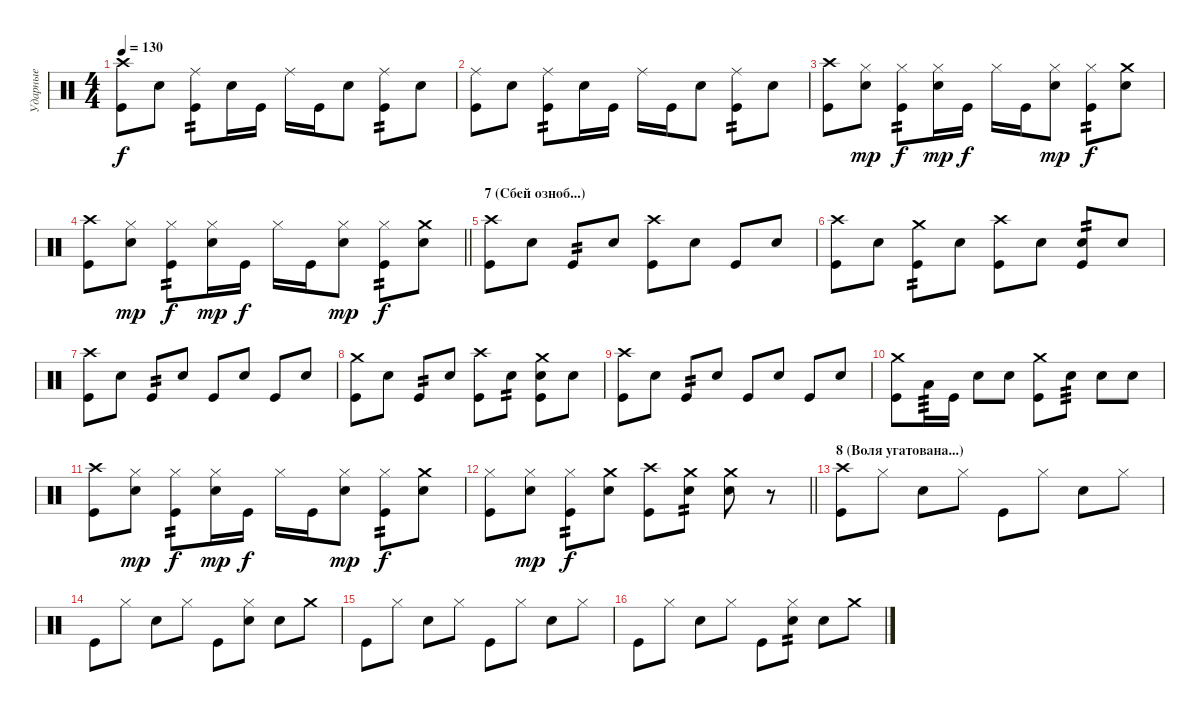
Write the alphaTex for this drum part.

\track ("Ударные" "Ударные") {instrument percussion}
\staff {score}
\articulation defaults
\ts (4 4)
\tempo 130
\clef neutral
\ks c
("Crash high (hit)" "Kick (hit)").8{dy f} "Snare (hit) 2".8 ("Ride (middle)" "Kick (hit)").8{tp 2} "Snare (hit) 2".16 "Kick (hit)".16 "Ride (middle)".16 "Kick (hit)".16 "Snare (hit) 2".8 ("Ride (middle)" "Kick (hit)").8{tp 2} "Snare (hit) 2".8 |
("Ride (middle)" "Kick (hit)").8 "Snare (hit) 2".8 ("Ride (middle)" "Kick (hit)").8{tp 2} "Snare (hit) 2".16 "Kick (hit)".16 "Ride (middle)".16 "Kick (hit)".16 "Snare (hit) 2".8 ("Ride (middle)" "Kick (hit)").8{tp 2} "Snare (hit) 2".8 |
("Crash high (hit)" "Kick (hit)").8 ("Hi-Hat (closed)" "Snare (hit) 2").8{dy mp} ("Hi-Hat (closed)" "Kick (hit)").8{tp 2 dy f} ("Hi-Hat (closed)" "Snare (hit) 2").16{dy mp} "Kick (hit)".16{dy f} "Hi-Hat (closed)".16 "Kick (hit)".16 ("Hi-Hat (closed)" "Snare (hit) 2").8{dy mp} ("Hi-Hat (closed)" "Kick (hit)").8{tp 2 dy f} ("Crash medium (hit)" "Snare (hit) 2").8 |
\barLineRight lightlight
("Crash high (hit)" "Kick (hit)").8 ("Hi-Hat (closed)" "Snare (hit) 2").8{dy mp} ("Hi-Hat (closed)" "Kick (hit)").8{tp 2 dy f} ("Hi-Hat (closed)" "Snare (hit) 2").16{dy mp} "Kick (hit)".16{dy f} "Hi-Hat (closed)".16 "Kick (hit)".16 ("Hi-Hat (closed)" "Snare (hit) 2").8{dy mp} ("Hi-Hat (closed)" "Kick (hit)").8{tp 2 dy f} ("Crash medium (hit)" "Snare (hit) 2").8 |
\section ("" "7 (Сбей озноб...)")
("Crash high (hit)" "Kick (hit)").8 "Snare (hit) 2".8 "Kick (hit)".8{tp 2} "Snare (hit) 2".8 ("Crash high (hit)" "Kick (hit)").8 "Snare (hit) 2".8 "Kick (hit)".8 "Snare (hit) 2".8 |
("Crash high (hit)" "Kick (hit)").8 "Snare (hit) 2".8 ("Crash medium (hit)" "Kick (hit)").8{tp 2} "Snare (hit) 2".8 ("Crash high (hit)" "Kick (hit)").8 "Snare (hit) 2".8 ("Snare (hit) 2" "Kick (hit)").8{tp 2} "Snare (hit) 2".8 |
("Crash high (hit)" "Kick (hit)").8 "Snare (hit) 2".8 "Kick (hit)".8{tp 2} "Snare (hit) 2".8 "Kick (hit)".8 "Snare (hit) 2".8 "Kick (hit)".8 "Snare (hit) 2".8 |
("Crash medium (hit)" "Kick (hit)").8 "Snare (hit) 2".8 "Kick (hit)".8{tp 2} "Snare (hit) 2".8 ("Crash high (hit)" "Kick (hit)").8 "Snare (hit) 2".8{tp 2} ("Crash medium (hit)" "Snare (hit) 2" "Kick (hit)").8 "Snare (hit) 2".8 |
("Crash high (hit)" "Kick (hit)").8 "Snare (hit) 2".8 "Kick (hit)".8{tp 2} "Snare (hit) 2".8 "Kick (hit)".8 "Snare (hit) 2".8 "Kick (hit)".8 "Snare (hit) 2".8 |
("Crash medium (hit)" "Kick (hit)").8 "Low Tom (hit)".16{tp 3} "Kick (hit)".16 "Snare (hit) 2".8 "Snare (hit) 2".8 ("Crash medium (hit)" "Kick (hit)").8 "Snare (hit) 2".8{tp 3} "Snare (hit) 2".8 "Snare (hit) 2".8 |
("Crash high (hit)" "Kick (hit)").8 ("Hi-Hat (closed)" "Snare (hit) 2").8{dy mp} ("Hi-Hat (closed)" "Kick (hit)").8{tp 2 dy f} ("Hi-Hat (closed)" "Snare (hit) 2").16{dy mp} "Kick (hit)".16{dy f} "Hi-Hat (closed)".16 "Kick (hit)".16 ("Hi-Hat (closed)" "Snare (hit) 2").8{dy mp} ("Hi-Hat (closed)" "Kick (hit)").8{tp 2 dy f} ("Crash medium (hit)" "Snare (hit) 2").8 |
\barLineRight lightlight
("Hi-Hat (closed)" "Kick (hit)").8 ("Hi-Hat (closed)" "Snare (hit) 2").8{dy mp} ("Hi-Hat (closed)" "Kick (hit)").8{tp 2 dy f} ("Crash medium (hit)" "Snare (hit) 2").8 ("Crash high (hit)" "Kick (hit)").8 ("Crash medium (hit)" "Snare (hit) 2").8{tp 2} ("Crash medium (hit)" "Snare (hit) 2").8 r.8 |
\section ("" "8 (Воля угатована...)")
("Crash high (hit)" "Kick (hit)").8 "Hi-Hat (closed)".8 "Snare (hit) 2".8 "Hi-Hat (closed)".8 "Kick (hit)".8 "Hi-Hat (closed)".8 "Snare (hit) 2".8 "Hi-Hat (closed)".8 |
"Kick (hit)".8 "Hi-Hat (closed)".8 "Snare (hit) 2".8 "Hi-Hat (closed)".8 "Kick (hit)".8 ("Hi-Hat (closed)" "Snare (hit) 2").8 "Snare (hit) 2".8 "Crash medium (hit)".8 |
"Kick (hit)".8 "Hi-Hat (closed)".8 "Snare (hit) 2".8 "Hi-Hat (closed)".8 "Kick (hit)".8 "Hi-Hat (closed)".8 "Snare (hit) 2".8 "Hi-Hat (closed)".8 |
"Kick (hit)".8 "Hi-Hat (closed)".8 "Snare (hit) 2".8 "Hi-Hat (closed)".8 "Kick (hit)".8 ("Hi-Hat (closed)" "Snare (hit) 2").8{tp 2} "Snare (hit) 2".8 "Crash medium (hit)".8
